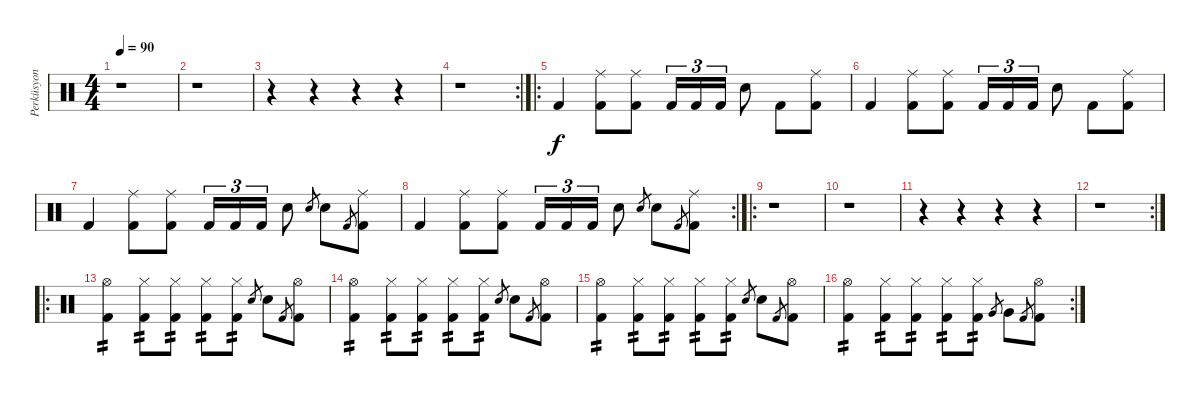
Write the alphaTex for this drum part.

\track ("Perküsyon" "Perküsyon") {instrument percussion}
\staff {score}
\articulation defaults
\ts (4 4)
\tempo 90
\clef neutral
\ks c
r.1{dy f} |
r.1 |
r.4 r.4 r.4 r.4 |
\rc 2
r.1 |
\ro "Kick (hit) 2".4
("Ride (middle)" "Kick (hit) 2").8 ("Ride (middle)" "Kick (hit) 2").8 "Kick (hit) 2".16{tu (3 2)} "Kick (hit) 2".16{tu (3 2)} "Kick (hit) 2".16{tu (3 2)} "Snare (hit) 2".8 "Kick (hit) 2".8 ("Ride (middle)" "Kick (hit) 2").8 |
"Kick (hit) 2".4 ("Ride (middle)" "Kick (hit) 2").8 ("Ride (middle)" "Kick (hit) 2").8 "Kick (hit) 2".16{tu (3 2)} "Kick (hit) 2".16{tu (3 2)} "Kick (hit) 2".16{tu (3 2)} "Snare (hit) 2".8 "Kick (hit) 2".8 ("Ride (middle)" "Kick (hit) 2").8 |
"Kick (hit) 2".4 ("Ride (middle)" "Kick (hit) 2").8 ("Ride (middle)" "Kick (hit) 2").8 "Kick (hit) 2".16{tu (3 2)} "Kick (hit) 2".16{tu (3 2)} "Kick (hit) 2".16{tu (3 2)} "Snare (hit) 2".8 "Snare (hit) 2".8{gr} "Snare (hit) 2".8 "Kick (hit) 2".8{gr} ("Ride (middle)" "Kick (hit) 2").8 |
\rc 2 "Kick (hit) 2".4
("Ride (middle)" "Kick (hit) 2").8 ("Ride (middle)" "Kick (hit) 2").8 "Kick (hit) 2".16{tu (3 2)} "Kick (hit) 2".16{tu (3 2)} "Kick (hit) 2".16{tu (3 2)} "Snare (hit) 2".8 "Snare (hit) 2".8{gr} "Snare (hit) 2".8 "Kick (hit) 2".8{gr} ("Ride (middle)" "Kick (hit) 2").8 |
\ro
r.1 |
r.1 |
r.4 r.4 r.4 r.4 |
\rc 2
r.1 |
\ro
("Hi-Hat (open)" "Kick (hit) 2").4{tp 2} ("Hi-Hat (closed)" "Kick (hit) 2").8{tp 2} ("Hi-Hat (closed)" "Kick (hit) 2").8{tp 2} ("Hi-Hat (closed)" "Kick (hit) 2").8{tp 2} ("Hi-Hat (closed)" "Kick (hit) 2").8{tp 2} "Snare (hit) 2".8{gr} "Snare (hit) 2".8 "Kick (hit) 2".8{gr} ("Kick (hit) 2" "Hi-Hat (open)").8 |
("Hi-Hat (open)" "Kick (hit) 2").4{tp 2} ("Hi-Hat (closed)" "Kick (hit) 2").8{tp 2} ("Hi-Hat (closed)" "Kick (hit) 2").8{tp 2} ("Hi-Hat (closed)" "Kick (hit) 2").8{tp 2} ("Hi-Hat (closed)" "Kick (hit) 2").8{tp 2} "Snare (hit) 2".8{gr} "Snare (hit) 2".8 "Kick (hit) 2".8{gr} ("Kick (hit) 2" "Hi-Hat (open)").8 |
("Hi-Hat (open)" "Kick (hit) 2").4{tp 2} ("Hi-Hat (closed)" "Kick (hit) 2").8{tp 2} ("Hi-Hat (closed)" "Kick (hit) 2").8{tp 2} ("Hi-Hat (closed)" "Kick (hit) 2").8{tp 2} ("Hi-Hat (closed)" "Kick (hit) 2").8{tp 2} "Snare (hit) 2".8{gr} "Snare (hit) 2".8 "Kick (hit) 2".8{gr} ("Kick (hit) 2" "Hi-Hat (open)").8 |
\rc 2
("Hi-Hat (open)" "Kick (hit) 2").4{tp 2} ("Hi-Hat (closed)" "Kick (hit) 2").8{tp 2} ("Hi-Hat (closed)" "Kick (hit) 2").8{tp 2} ("Hi-Hat (closed)" "Kick (hit) 2").8{tp 2} ("Hi-Hat (closed)" "Kick (hit) 2").8{tp 2} "Very Low Tom (hit)".8{gr} "Very Low Tom (hit)".8 "Kick (hit) 2".8{gr} ("Kick (hit) 2" "Hi-Hat (open)").8
